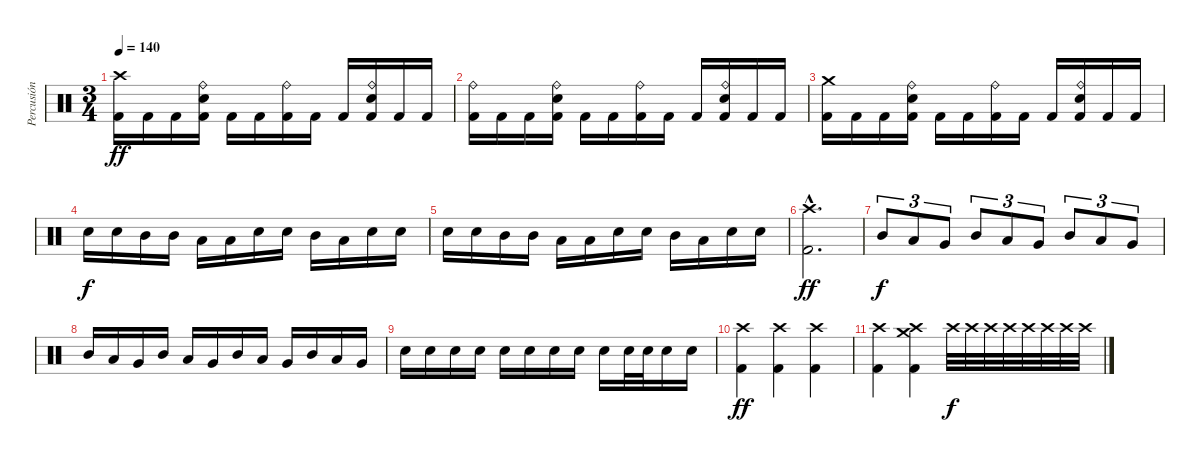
\track ("Percusión" "Percusión") {instrument percussion}
\staff {score}
\articulation defaults
\ts (3 4)
\tempo 140
\clef neutral
\ks c
("Crash high (hit)" "Kick (hit) 2").16{dy ff} "Kick (hit) 2".16 "Kick (hit) 2".16 ("Ride (bell)" "Electric Snare (hit)" "Kick (hit) 2").16 "Kick (hit) 2".16 "Kick (hit) 2".16 ("Ride (bell)" "Kick (hit) 2").16 "Kick (hit) 2".16 "Kick (hit) 2".16 ("Ride (bell)" "Electric Snare (hit)" "Kick (hit) 2").16 "Kick (hit) 2".16 "Kick (hit) 2".16 |
("Ride (bell)" "Kick (hit) 2").16 "Kick (hit) 2".16 "Kick (hit) 2".16 ("Ride (bell)" "Electric Snare (hit)" "Kick (hit) 2").16 "Kick (hit) 2".16 "Kick (hit) 2".16 ("Ride (bell)" "Kick (hit) 2").16 "Kick (hit) 2".16 "Kick (hit) 2".16 ("Ride (bell)" "Electric Snare (hit)" "Kick (hit) 2").16 "Kick (hit) 2".16 "Kick (hit) 2".16 |
("Crash medium (hit)" "Kick (hit) 2").16 "Kick (hit) 2".16 "Kick (hit) 2".16 ("Ride (bell)" "Electric Snare (hit)" "Kick (hit) 2").16 "Kick (hit) 2".16 "Kick (hit) 2".16 ("Ride (bell)" "Kick (hit) 2").16 "Kick (hit) 2".16 "Kick (hit) 2".16 ("Ride (bell)" "Electric Snare (hit)" "Kick (hit) 2").16 "Kick (hit) 2".16 "Kick (hit) 2".16 |
"Electric Snare (hit)".16{dy f} "Electric Snare (hit)".16 "Mid Tom (hit)".16 "Mid Tom (hit)".16 "Low Tom (hit)".16 "Low Tom (hit)".16 "Electric Snare (hit)".16 "Electric Snare (hit)".16 "Mid Tom (hit)".16 "Low Tom (hit)".16 "Electric Snare (hit)".16 "Electric Snare (hit)".16 |
"Electric Snare (hit)".16 "Electric Snare (hit)".16 "Mid Tom (hit)".16 "Mid Tom (hit)".16 "Low Tom (hit)".16 "Low Tom (hit)".16 "Electric Snare (hit)".16 "Electric Snare (hit)".16 "Mid Tom (hit)".16 "Low Tom (hit)".16 "Electric Snare (hit)".16 "Electric Snare (hit)".16 |
("Crash high (hit)"{hac} "Kick (hit) 2"{hac}).2{d dy ff} |
"Mid Tom (hit)".8{tu (3 2) dy f} "Low Tom (hit)".8{tu (3 2)} "Very Low Tom (hit)".8{tu (3 2)} "Mid Tom (hit)".8{tu (3 2)} "Low Tom (hit)".8{tu (3 2)} "Very Low Tom (hit)".8{tu (3 2)} "Mid Tom (hit)".8{tu (3 2)} "Low Tom (hit)".8{tu (3 2)} "Very Low Tom (hit)".8{tu (3 2)} |
"Mid Tom (hit)".16 "Low Tom (hit)".16 "Very Low Tom (hit)".16 "Mid Tom (hit)".16 "Low Tom (hit)".16 "Very Low Tom (hit)".16 "Mid Tom (hit)".16 "Low Tom (hit)".16 "Very Low Tom (hit)".16 "Mid Tom (hit)".16 "Low Tom (hit)".16 "Very Low Tom (hit)".16 |
"Electric Snare (hit)".16 "Electric Snare (hit)".16 "Electric Snare (hit)".16 "Electric Snare (hit)".16 "Electric Snare (hit)".16 "Electric Snare (hit)".16 "Electric Snare (hit)".16 "Electric Snare (hit)".16 "Electric Snare (hit)".16 "Electric Snare (hit)".32 "Electric Snare (hit)".32 "Electric Snare (hit)".16 "Electric Snare (hit)".16 |
("Crash high (hit)" "Kick (hit) 2").4{dy ff} ("Crash high (hit)" "Kick (hit) 2").4 ("Crash high (hit)" "Kick (hit) 2").4 |
("Crash high (hit)" "Kick (hit) 2").4 ("Crash high (hit)" "Crash medium (hit)" "Kick (hit) 2").4 "Crash high (hit)".32{dy f} "Crash high (hit)".32 "Crash high (hit)".32 "Crash high (hit)".32 "Crash high (hit)".32 "Crash high (hit)".32 "Crash high (hit)".32 "Crash high (hit)".32
